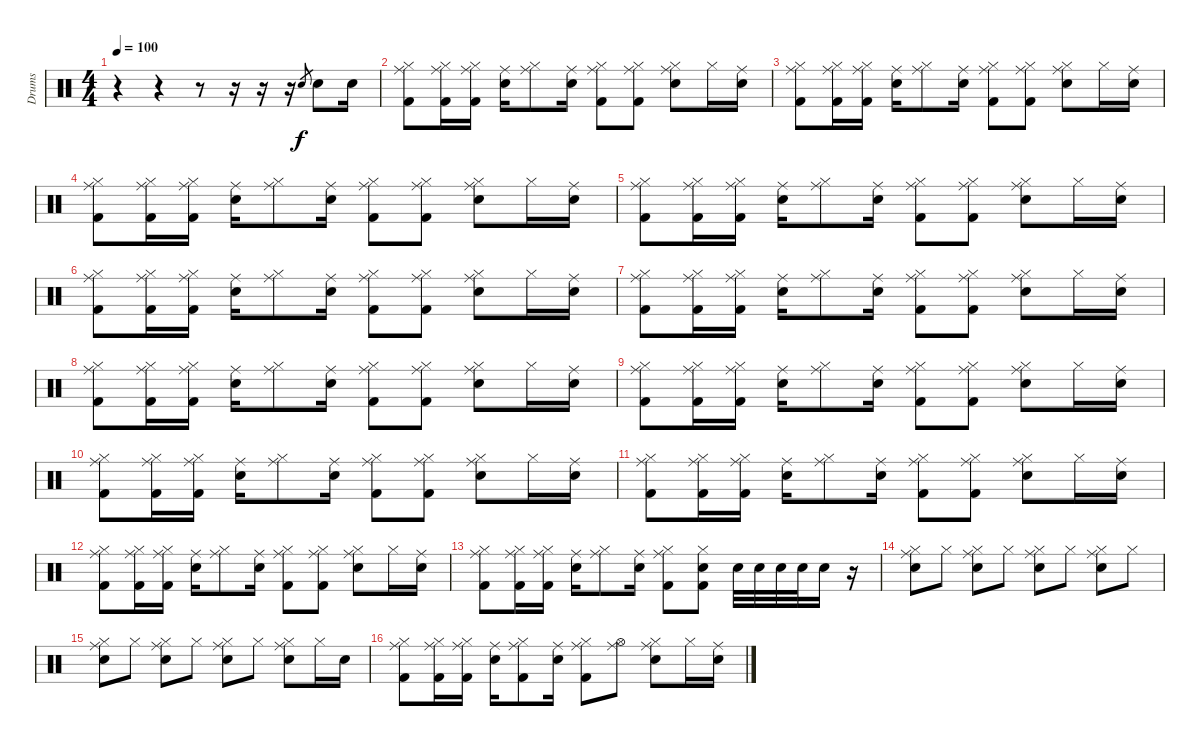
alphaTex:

\track ("Drums" "Drums") {instrument percussion}
\staff {score}
\articulation defaults
\ts (4 4)
\tempo 100
\clef neutral
\ks c
r.4{dy f} r.4 r.8 r.16 r.16 r.16 "Electric Snare (hit)".8{gr} "Electric Snare (hit)".8 "Electric Snare (hit)".16 |
("Ride (middle)" "Hi-Hat (closed)" "Kick (hit) 2").8 ("Ride (middle)" "Hi-Hat (closed)" "Kick (hit) 2").16 ("Ride (middle)" "Hi-Hat (closed)" "Kick (hit) 2").16 ("Ride (middle)" "Electric Snare (hit)").16 ("Ride (middle)" "Hi-Hat (closed)").8 ("Ride (middle)" "Electric Snare (hit)").16 ("Ride (middle)" "Hi-Hat (closed)" "Kick (hit) 2").8 ("Ride (middle)" "Hi-Hat (closed)" "Kick (hit) 2").8 ("Ride (middle)" "Hi-Hat (closed)" "Electric Snare (hit)").8 "Hi-Hat (closed)".16 ("Ride (middle)" "Electric Snare (hit)").16 |
("Ride (middle)" "Hi-Hat (closed)" "Kick (hit) 2").8 ("Ride (middle)" "Hi-Hat (closed)" "Kick (hit) 2").16 ("Ride (middle)" "Hi-Hat (closed)" "Kick (hit) 2").16 ("Ride (middle)" "Electric Snare (hit)").16 ("Ride (middle)" "Hi-Hat (closed)").8 ("Ride (middle)" "Electric Snare (hit)").16 ("Ride (middle)" "Hi-Hat (closed)" "Kick (hit) 2").8 ("Ride (middle)" "Hi-Hat (closed)" "Kick (hit) 2").8 ("Ride (middle)" "Hi-Hat (closed)" "Electric Snare (hit)").8 "Hi-Hat (closed)".16 ("Ride (middle)" "Electric Snare (hit)").16 |
("Ride (middle)" "Hi-Hat (closed)" "Kick (hit) 2").8 ("Ride (middle)" "Hi-Hat (closed)" "Kick (hit) 2").16 ("Ride (middle)" "Hi-Hat (closed)" "Kick (hit) 2").16 ("Ride (middle)" "Electric Snare (hit)").16 ("Ride (middle)" "Hi-Hat (closed)").8 ("Ride (middle)" "Electric Snare (hit)").16 ("Ride (middle)" "Hi-Hat (closed)" "Kick (hit) 2").8 ("Ride (middle)" "Hi-Hat (closed)" "Kick (hit) 2").8 ("Ride (middle)" "Hi-Hat (closed)" "Electric Snare (hit)").8 "Hi-Hat (closed)".16 ("Ride (middle)" "Electric Snare (hit)").16 |
("Ride (middle)" "Hi-Hat (closed)" "Kick (hit) 2").8 ("Ride (middle)" "Hi-Hat (closed)" "Kick (hit) 2").16 ("Ride (middle)" "Hi-Hat (closed)" "Kick (hit) 2").16 ("Ride (middle)" "Electric Snare (hit)").16 ("Ride (middle)" "Hi-Hat (closed)").8 ("Ride (middle)" "Electric Snare (hit)").16 ("Ride (middle)" "Hi-Hat (closed)" "Kick (hit) 2").8 ("Ride (middle)" "Hi-Hat (closed)" "Kick (hit) 2").8 ("Ride (middle)" "Hi-Hat (closed)" "Electric Snare (hit)").8 "Hi-Hat (closed)".16 ("Ride (middle)" "Electric Snare (hit)").16 |
("Ride (middle)" "Hi-Hat (closed)" "Kick (hit) 2").8 ("Ride (middle)" "Hi-Hat (closed)" "Kick (hit) 2").16 ("Ride (middle)" "Hi-Hat (closed)" "Kick (hit) 2").16 ("Ride (middle)" "Electric Snare (hit)").16 ("Ride (middle)" "Hi-Hat (closed)").8 ("Ride (middle)" "Electric Snare (hit)").16 ("Ride (middle)" "Hi-Hat (closed)" "Kick (hit) 2").8 ("Ride (middle)" "Hi-Hat (closed)" "Kick (hit) 2").8 ("Ride (middle)" "Hi-Hat (closed)" "Electric Snare (hit)").8 "Hi-Hat (closed)".16 ("Ride (middle)" "Electric Snare (hit)").16 |
("Ride (middle)" "Hi-Hat (closed)" "Kick (hit) 2").8 ("Ride (middle)" "Hi-Hat (closed)" "Kick (hit) 2").16 ("Ride (middle)" "Hi-Hat (closed)" "Kick (hit) 2").16 ("Ride (middle)" "Electric Snare (hit)").16 ("Ride (middle)" "Hi-Hat (closed)").8 ("Ride (middle)" "Electric Snare (hit)").16 ("Ride (middle)" "Hi-Hat (closed)" "Kick (hit) 2").8 ("Ride (middle)" "Hi-Hat (closed)" "Kick (hit) 2").8 ("Ride (middle)" "Hi-Hat (closed)" "Electric Snare (hit)").8 "Hi-Hat (closed)".16 ("Ride (middle)" "Electric Snare (hit)").16 |
("Ride (middle)" "Hi-Hat (closed)" "Kick (hit) 2").8 ("Ride (middle)" "Hi-Hat (closed)" "Kick (hit) 2").16 ("Ride (middle)" "Hi-Hat (closed)" "Kick (hit) 2").16 ("Ride (middle)" "Electric Snare (hit)").16 ("Ride (middle)" "Hi-Hat (closed)").8 ("Ride (middle)" "Electric Snare (hit)").16 ("Ride (middle)" "Hi-Hat (closed)" "Kick (hit) 2").8 ("Ride (middle)" "Hi-Hat (closed)" "Kick (hit) 2").8 ("Ride (middle)" "Hi-Hat (closed)" "Electric Snare (hit)").8 "Hi-Hat (closed)".16 ("Ride (middle)" "Electric Snare (hit)").16 |
("Ride (middle)" "Hi-Hat (closed)" "Kick (hit) 2").8 ("Ride (middle)" "Hi-Hat (closed)" "Kick (hit) 2").16 ("Ride (middle)" "Hi-Hat (closed)" "Kick (hit) 2").16 ("Ride (middle)" "Electric Snare (hit)").16 ("Ride (middle)" "Hi-Hat (closed)").8 ("Ride (middle)" "Electric Snare (hit)").16 ("Ride (middle)" "Hi-Hat (closed)" "Kick (hit) 2").8 ("Ride (middle)" "Hi-Hat (closed)" "Kick (hit) 2").8 ("Ride (middle)" "Hi-Hat (closed)" "Electric Snare (hit)").8 "Hi-Hat (closed)".16 ("Ride (middle)" "Electric Snare (hit)").16 |
("Ride (middle)" "Hi-Hat (closed)" "Kick (hit) 2").8 ("Ride (middle)" "Hi-Hat (closed)" "Kick (hit) 2").16 ("Ride (middle)" "Hi-Hat (closed)" "Kick (hit) 2").16 ("Ride (middle)" "Electric Snare (hit)").16 ("Ride (middle)" "Hi-Hat (closed)").8 ("Ride (middle)" "Electric Snare (hit)").16 ("Ride (middle)" "Hi-Hat (closed)" "Kick (hit) 2").8 ("Ride (middle)" "Hi-Hat (closed)" "Kick (hit) 2").8 ("Ride (middle)" "Hi-Hat (closed)" "Electric Snare (hit)").8 "Hi-Hat (closed)".16 ("Ride (middle)" "Electric Snare (hit)").16 |
("Ride (middle)" "Hi-Hat (closed)" "Kick (hit) 2").8 ("Ride (middle)" "Hi-Hat (closed)" "Kick (hit) 2").16 ("Ride (middle)" "Hi-Hat (closed)" "Kick (hit) 2").16 ("Ride (middle)" "Electric Snare (hit)").16 ("Ride (middle)" "Hi-Hat (closed)").8 ("Ride (middle)" "Electric Snare (hit)").16 ("Ride (middle)" "Hi-Hat (closed)" "Kick (hit) 2").8 ("Ride (middle)" "Hi-Hat (closed)" "Kick (hit) 2").8 ("Ride (middle)" "Hi-Hat (closed)" "Electric Snare (hit)").8 "Hi-Hat (closed)".16 ("Ride (middle)" "Electric Snare (hit)").16 |
("Ride (middle)" "Hi-Hat (closed)" "Kick (hit) 2").8 ("Ride (middle)" "Hi-Hat (closed)" "Kick (hit) 2").16 ("Ride (middle)" "Hi-Hat (closed)" "Kick (hit) 2").16 ("Ride (middle)" "Electric Snare (hit)").16 ("Ride (middle)" "Hi-Hat (closed)").8 ("Ride (middle)" "Electric Snare (hit)").16 ("Ride (middle)" "Hi-Hat (closed)" "Kick (hit) 2").8 ("Ride (middle)" "Hi-Hat (closed)" "Kick (hit) 2").8 ("Ride (middle)" "Hi-Hat (closed)" "Electric Snare (hit)").8 "Hi-Hat (closed)".16 ("Ride (middle)" "Electric Snare (hit)").16 |
("Ride (middle)" "Hi-Hat (closed)" "Kick (hit) 2").8 ("Ride (middle)" "Hi-Hat (closed)" "Kick (hit) 2").16 ("Ride (middle)" "Hi-Hat (closed)" "Kick (hit) 2").16 ("Ride (middle)" "Electric Snare (hit)").16 ("Ride (middle)" "Hi-Hat (closed)").8 ("Ride (middle)" "Electric Snare (hit)").16 ("Ride (middle)" "Hi-Hat (closed)" "Kick (hit) 2").8 ("Hi-Hat (closed)" "Electric Snare (hit)" "Kick (hit) 2").8 "Electric Snare (hit)".32 "Electric Snare (hit)".32 "Electric Snare (hit)".32 "Electric Snare (hit)".32 "Electric Snare (hit)".16 r.16 |
("Ride (middle)" "Hi-Hat (closed)" "Electric Snare (hit)").8 "Hi-Hat (closed)".8 ("Ride (middle)" "Hi-Hat (closed)" "Electric Snare (hit)").8 "Hi-Hat (closed)".8 ("Ride (middle)" "Hi-Hat (closed)" "Electric Snare (hit)").8 "Hi-Hat (closed)".8 ("Ride (middle)" "Hi-Hat (closed)" "Electric Snare (hit)").8 "Hi-Hat (closed)".8 |
("Ride (middle)" "Hi-Hat (closed)" "Electric Snare (hit)").8 "Hi-Hat (closed)".8 ("Ride (middle)" "Hi-Hat (closed)" "Electric Snare (hit)").8 "Hi-Hat (closed)".8 ("Ride (middle)" "Hi-Hat (closed)" "Electric Snare (hit)").8 "Hi-Hat (closed)".8 ("Ride (middle)" "Hi-Hat (closed)" "Electric Snare (hit)").8 "Hi-Hat (closed)".16 "Electric Snare (hit)".16 |
("Ride (middle)" "Hi-Hat (closed)" "Kick (hit) 2").8 ("Ride (middle)" "Hi-Hat (closed)" "Kick (hit) 2").16 ("Ride (middle)" "Hi-Hat (closed)" "Kick (hit) 2").16 ("Ride (middle)" "Electric Snare (hit)").16 ("Ride (middle)" "Hi-Hat (closed)" "Kick (hit) 2").8 ("Ride (middle)" "Electric Snare (hit)").16 ("Ride (middle)" "Hi-Hat (closed)" "Kick (hit) 2").8 ("Ride (middle)" "Hi-Hat (open)").8 ("Ride (middle)" "Hi-Hat (closed)" "Electric Snare (hit)").8 "Hi-Hat (closed)".16 ("Ride (middle)" "Electric Snare (hit)").16
